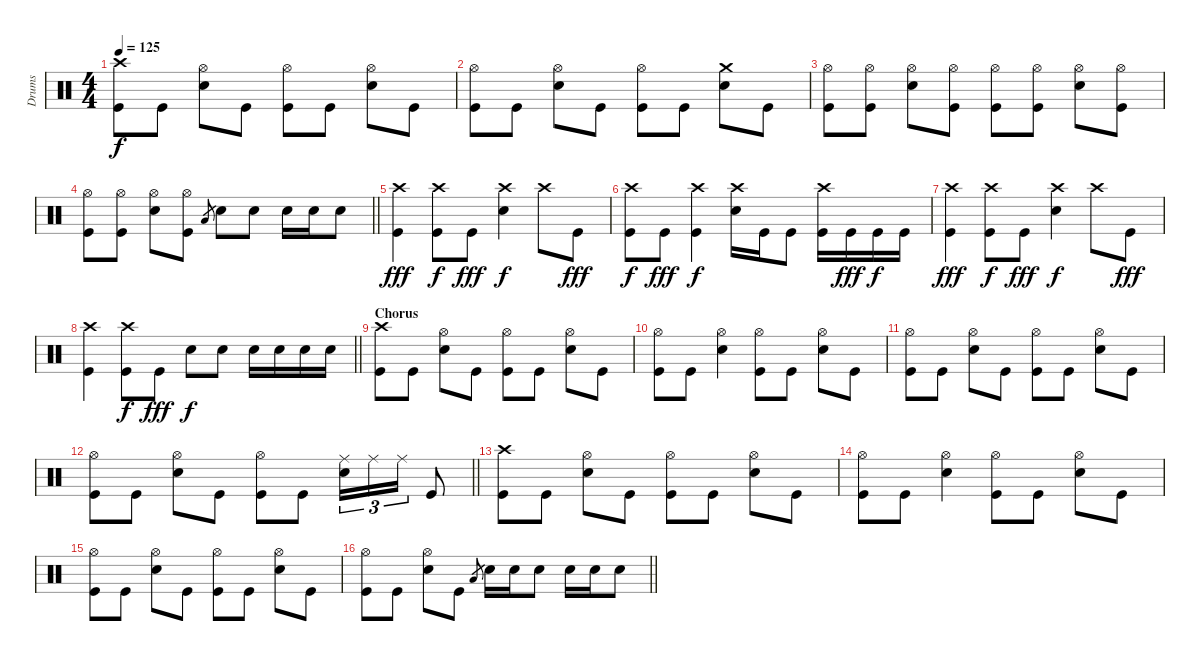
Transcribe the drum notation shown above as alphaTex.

\track ("Drums" "Drums") {instrument percussion}
\staff {score}
\articulation defaults
\ts (4 4)
\tempo 125
\clef neutral
\ks c
("Crash high (hit)" "Kick (hit)").8{dy f} "Kick (hit)".8 ("Hi-Hat (open)" "Electric Snare (hit)").8 "Kick (hit)".8 ("Hi-Hat (open)" "Kick (hit)").8 "Kick (hit)".8 ("Hi-Hat (open)" "Electric Snare (hit)").8 "Kick (hit)".8 |
("Hi-Hat (open)" "Kick (hit)").8 "Kick (hit)".8 ("Hi-Hat (open)" "Electric Snare (hit)").8 "Kick (hit)".8 ("Hi-Hat (open)" "Kick (hit)").8 "Kick (hit)".8 ("Crash medium (hit)" "Electric Snare (hit)").8 "Kick (hit)".8 |
("Hi-Hat (open)" "Kick (hit)").8 ("Hi-Hat (open)" "Kick (hit)").8 ("Hi-Hat (open)" "Electric Snare (hit)").8 ("Hi-Hat (open)" "Kick (hit)").8 ("Hi-Hat (open)" "Kick (hit)").8 ("Hi-Hat (open)" "Kick (hit)").8 ("Hi-Hat (open)" "Electric Snare (hit)").8 ("Hi-Hat (open)" "Kick (hit)").8 |
\barLineRight lightlight
("Hi-Hat (open)" "Kick (hit)").8 ("Hi-Hat (open)" "Kick (hit)").8 ("Hi-Hat (open)" "Electric Snare (hit)").8 ("Hi-Hat (open)" "Kick (hit)").8 "Low Floor Tom (hit)".8{gr} "Electric Snare (hit)".8 "Electric Snare (hit)".8 "Electric Snare (hit)".16 "Electric Snare (hit)".16 "Electric Snare (hit)".8 |
\section ("" "")
("Crash high (hit)" "Kick (hit)").4{dy fff} ("Crash high (hit)" "Kick (hit)").8{dy f} "Kick (hit)".8{dy fff} ("Crash high (hit)" "Electric Snare (hit)").4{dy f} "Crash high (hit)".8 "Kick (hit)".8{dy fff} |
("Crash high (hit)" "Kick (hit)").8{dy f} "Kick (hit)".8{dy fff} ("Crash high (hit)" "Kick (hit)").4{dy f} ("Crash high (hit)" "Electric Snare (hit)").16 "Kick (hit)".16 "Kick (hit)".8 ("Crash high (hit)" "Kick (hit)").16 "Kick (hit)".16{dy fff} "Kick (hit)".16{dy f} "Kick (hit)".16 |
("Crash high (hit)" "Kick (hit)").4{dy fff} ("Crash high (hit)" "Kick (hit)").8{dy f} "Kick (hit)".8{dy fff} ("Crash high (hit)" "Electric Snare (hit)").4{dy f} "Crash high (hit)".8 "Kick (hit)".8{dy fff} |
\barLineRight lightlight
("Crash high (hit)" "Kick (hit)").4 ("Crash high (hit)" "Kick (hit)").8{dy f} "Kick (hit)".8{dy fff} "Electric Snare (hit)".8{dy f} "Electric Snare (hit)".8 "Electric Snare (hit)".16 "Electric Snare (hit)".16 "Electric Snare (hit)".16 "Electric Snare (hit)".16 |
\section ("" "Chorus")
("Crash high (hit)" "Kick (hit)").8 "Kick (hit)".8 ("Hi-Hat (open)" "Electric Snare (hit)").8 "Kick (hit)".8 ("Hi-Hat (open)" "Kick (hit)").8 "Kick (hit)".8 ("Hi-Hat (open)" "Electric Snare (hit)").8 "Kick (hit)".8 |
("Hi-Hat (open)" "Kick (hit)").8 "Kick (hit)".8 ("Hi-Hat (open)" "Electric Snare (hit)").4 ("Hi-Hat (open)" "Kick (hit)").8 "Kick (hit)".8 ("Hi-Hat (open)" "Electric Snare (hit)").8 "Kick (hit)".8 |
("Hi-Hat (open)" "Kick (hit)").8 "Kick (hit)".8 ("Hi-Hat (open)" "Electric Snare (hit)").8 "Kick (hit)".8 ("Hi-Hat (open)" "Kick (hit)").8 "Kick (hit)".8 ("Hi-Hat (open)" "Electric Snare (hit)").8 "Kick (hit)".8 |
\barLineRight lightlight
("Hi-Hat (open)" "Kick (hit)").8 "Kick (hit)".8 ("Hi-Hat (open)" "Electric Snare (hit)").8 "Kick (hit)".8 ("Hi-Hat (open)" "Kick (hit)").8 "Kick (hit)".8 ("Ride (middle)" "Electric Snare (hit)").16{tu (3 2)} "Ride (middle)".16{tu (3 2)} "Ride (middle)".16{tu (3 2)} "Kick (hit)".8 |
("Crash high (hit)" "Kick (hit)").8 "Kick (hit)".8 ("Hi-Hat (open)" "Electric Snare (hit)").8 "Kick (hit)".8 ("Hi-Hat (open)" "Kick (hit)").8 "Kick (hit)".8 ("Hi-Hat (open)" "Electric Snare (hit)").8 "Kick (hit)".8 |
("Hi-Hat (open)" "Kick (hit)").8 "Kick (hit)".8 ("Hi-Hat (open)" "Electric Snare (hit)").4 ("Hi-Hat (open)" "Kick (hit)").8 "Kick (hit)".8 ("Hi-Hat (open)" "Electric Snare (hit)").8 "Kick (hit)".8 |
("Hi-Hat (open)" "Kick (hit)").8 "Kick (hit)".8 ("Hi-Hat (open)" "Electric Snare (hit)").8 "Kick (hit)".8 ("Hi-Hat (open)" "Kick (hit)").8 "Kick (hit)".8 ("Hi-Hat (open)" "Electric Snare (hit)").8 "Kick (hit)".8 |
\barLineRight lightlight
("Hi-Hat (open)" "Kick (hit)").8 "Kick (hit)".8 ("Hi-Hat (open)" "Electric Snare (hit)").8 "Kick (hit)".8 "Low Floor Tom (hit)".8{gr} "Electric Snare (hit)".16 "Electric Snare (hit)".16 "Electric Snare (hit)".8 "Electric Snare (hit)".16 "Electric Snare (hit)".16 "Electric Snare (hit)".8
